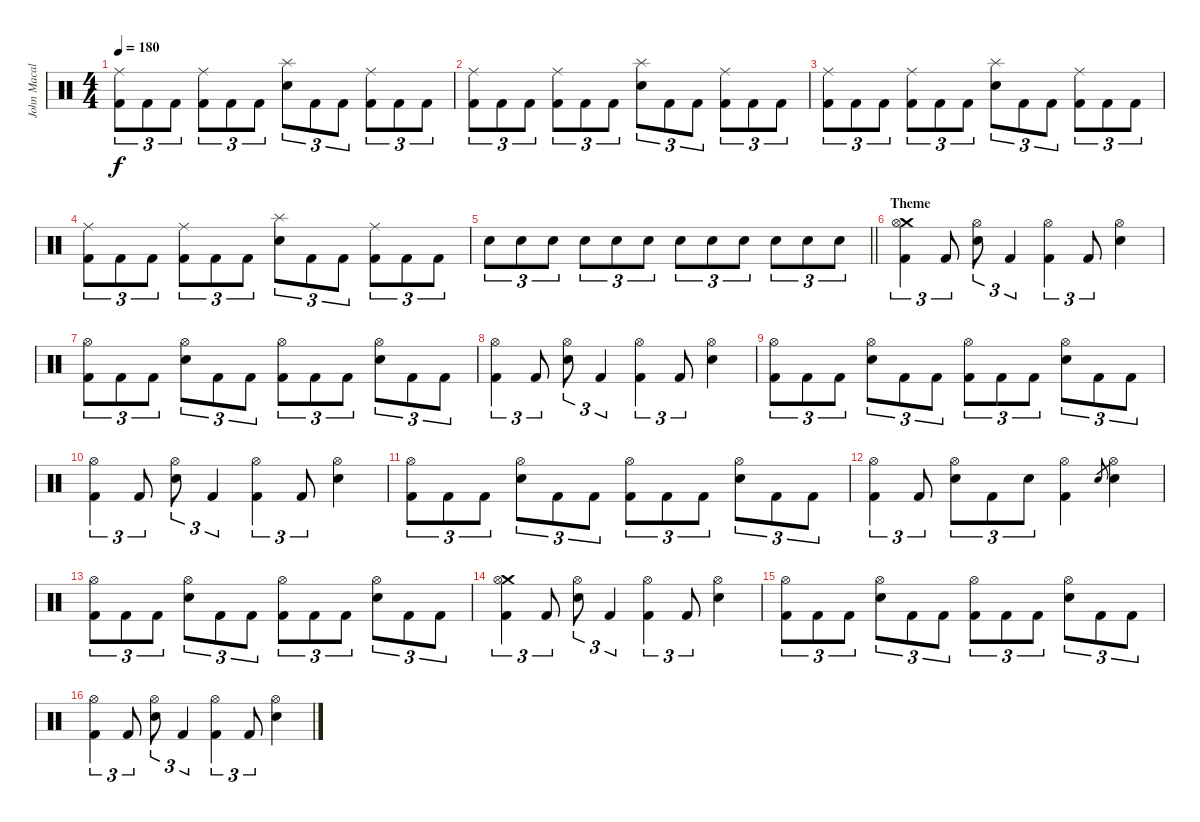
\track ("John Macaluso" "John Macal") {instrument percussion}
\staff {score}
\articulation defaults
\ts (4 4)
\tempo 180
\clef neutral
\ks c
("Ride (middle)" "Kick (hit) 2").8{tu (3 2) dy f} "Kick (hit) 2".8{tu (3 2)} "Kick (hit) 2".8{tu (3 2)} ("Ride (middle)" "Kick (hit) 2").8{tu (3 2)} "Kick (hit) 2".8{tu (3 2)} "Kick (hit) 2".8{tu (3 2)} ("Splash (hit)" "Snare (hit) 2").8{tu (3 2)} "Kick (hit) 2".8{tu (3 2)} "Kick (hit) 2".8{tu (3 2)} ("Ride (middle)" "Kick (hit) 2").8{tu (3 2)} "Kick (hit) 2".8{tu (3 2)} "Kick (hit) 2".8{tu (3 2)} |
("Ride (middle)" "Kick (hit) 2").8{tu (3 2)} "Kick (hit) 2".8{tu (3 2)} "Kick (hit) 2".8{tu (3 2)} ("Ride (middle)" "Kick (hit) 2").8{tu (3 2)} "Kick (hit) 2".8{tu (3 2)} "Kick (hit) 2".8{tu (3 2)} ("Splash (hit)" "Snare (hit) 2").8{tu (3 2)} "Kick (hit) 2".8{tu (3 2)} "Kick (hit) 2".8{tu (3 2)} ("Ride (middle)" "Kick (hit) 2").8{tu (3 2)} "Kick (hit) 2".8{tu (3 2)} "Kick (hit) 2".8{tu (3 2)} |
("Ride (middle)" "Kick (hit) 2").8{tu (3 2)} "Kick (hit) 2".8{tu (3 2)} "Kick (hit) 2".8{tu (3 2)} ("Ride (middle)" "Kick (hit) 2").8{tu (3 2)} "Kick (hit) 2".8{tu (3 2)} "Kick (hit) 2".8{tu (3 2)} ("Splash (hit)" "Snare (hit) 2").8{tu (3 2)} "Kick (hit) 2".8{tu (3 2)} "Kick (hit) 2".8{tu (3 2)} ("Ride (middle)" "Kick (hit) 2").8{tu (3 2)} "Kick (hit) 2".8{tu (3 2)} "Kick (hit) 2".8{tu (3 2)} |
("Ride (middle)" "Kick (hit) 2").8{tu (3 2)} "Kick (hit) 2".8{tu (3 2)} "Kick (hit) 2".8{tu (3 2)} ("Ride (middle)" "Kick (hit) 2").8{tu (3 2)} "Kick (hit) 2".8{tu (3 2)} "Kick (hit) 2".8{tu (3 2)} ("Splash (hit)" "Snare (hit) 2").8{tu (3 2)} "Kick (hit) 2".8{tu (3 2)} "Kick (hit) 2".8{tu (3 2)} ("Ride (middle)" "Kick (hit) 2").8{tu (3 2)} "Kick (hit) 2".8{tu (3 2)} "Kick (hit) 2".8{tu (3 2)} |
\barLineRight lightlight "Snare (hit) 2".8{tu (3 2)} "Snare (hit) 2".8{tu (3 2)} "Snare (hit) 2".8{tu (3 2)} "Snare (hit) 2".8{tu (3 2)} "Snare (hit) 2".8{tu (3 2)} "Snare (hit) 2".8{tu (3 2)} "Snare (hit) 2".8{tu (3 2)} "Snare (hit) 2".8{tu (3 2)} "Snare (hit) 2".8{tu (3 2)} "Snare (hit) 2".8{tu (3 2)} "Snare (hit) 2".8{tu (3 2)} "Snare (hit) 2".8{tu (3 2)}
|
\section ("" "Theme")
("Crash medium (hit)" "Hi-Hat (open)" "Kick (hit) 2").4{tu (3 2)} "Kick (hit) 2".8{tu (3 2)} ("Hi-Hat (open)" "Snare (hit) 2").8{tu (3 2)} "Kick (hit) 2".4{tu (3 2)} ("Hi-Hat (open)" "Kick (hit) 2").4{tu (3 2)} "Kick (hit) 2".8{tu (3 2)} ("Hi-Hat (open)" "Snare (hit) 2").4 |
("Hi-Hat (open)" "Kick (hit) 2").8{tu (3 2)} "Kick (hit) 2".8{tu (3 2)} "Kick (hit) 2".8{tu (3 2)} ("Hi-Hat (open)" "Snare (hit) 2").8{tu (3 2)} "Kick (hit) 2".8{tu (3 2)} "Kick (hit) 2".8{tu (3 2)} ("Hi-Hat (open)" "Kick (hit) 2").8{tu (3 2)} "Kick (hit) 2".8{tu (3 2)} "Kick (hit) 2".8{tu (3 2)} ("Hi-Hat (open)" "Snare (hit) 2").8{tu (3 2)} "Kick (hit) 2".8{tu (3 2)} "Kick (hit) 2".8{tu (3 2)} |
("Hi-Hat (open)" "Kick (hit) 2").4{tu (3 2)} "Kick (hit) 2".8{tu (3 2)} ("Hi-Hat (open)" "Snare (hit) 2").8{tu (3 2)} "Kick (hit) 2".4{tu (3 2)} ("Hi-Hat (open)" "Kick (hit) 2").4{tu (3 2)} "Kick (hit) 2".8{tu (3 2)} ("Hi-Hat (open)" "Snare (hit) 2").4 |
("Hi-Hat (open)" "Kick (hit) 2").8{tu (3 2)} "Kick (hit) 2".8{tu (3 2)} "Kick (hit) 2".8{tu (3 2)} ("Hi-Hat (open)" "Snare (hit) 2").8{tu (3 2)} "Kick (hit) 2".8{tu (3 2)} "Kick (hit) 2".8{tu (3 2)} ("Hi-Hat (open)" "Kick (hit) 2").8{tu (3 2)} "Kick (hit) 2".8{tu (3 2)} "Kick (hit) 2".8{tu (3 2)} ("Hi-Hat (open)" "Snare (hit) 2").8{tu (3 2)} "Kick (hit) 2".8{tu (3 2)} "Kick (hit) 2".8{tu (3 2)} |
("Hi-Hat (open)" "Kick (hit) 2").4{tu (3 2)} "Kick (hit) 2".8{tu (3 2)} ("Hi-Hat (open)" "Snare (hit) 2").8{tu (3 2)} "Kick (hit) 2".4{tu (3 2)} ("Hi-Hat (open)" "Kick (hit) 2").4{tu (3 2)} "Kick (hit) 2".8{tu (3 2)} ("Hi-Hat (open)" "Snare (hit) 2").4 |
("Hi-Hat (open)" "Kick (hit) 2").8{tu (3 2)} "Kick (hit) 2".8{tu (3 2)} "Kick (hit) 2".8{tu (3 2)} ("Hi-Hat (open)" "Snare (hit) 2").8{tu (3 2)} "Kick (hit) 2".8{tu (3 2)} "Kick (hit) 2".8{tu (3 2)} ("Hi-Hat (open)" "Kick (hit) 2").8{tu (3 2)} "Kick (hit) 2".8{tu (3 2)} "Kick (hit) 2".8{tu (3 2)} ("Hi-Hat (open)" "Snare (hit) 2").8{tu (3 2)} "Kick (hit) 2".8{tu (3 2)} "Kick (hit) 2".8{tu (3 2)} |
("Hi-Hat (open)" "Kick (hit) 2").4{tu (3 2)} "Kick (hit) 2".8{tu (3 2)} ("Hi-Hat (open)" "Snare (hit) 2").8{tu (3 2)} "Kick (hit) 2".8{tu (3 2)} "Snare (hit) 2".8{tu (3 2)} ("Hi-Hat (open)" "Kick (hit) 2").4 "Snare (hit) 2".8{gr} ("Hi-Hat (open)" "Snare (hit) 2").4 |
("Hi-Hat (open)" "Kick (hit) 2").8{tu (3 2)} "Kick (hit) 2".8{tu (3 2)} "Kick (hit) 2".8{tu (3 2)} ("Hi-Hat (open)" "Snare (hit) 2").8{tu (3 2)} "Kick (hit) 2".8{tu (3 2)} "Kick (hit) 2".8{tu (3 2)} ("Hi-Hat (open)" "Kick (hit) 2").8{tu (3 2)} "Kick (hit) 2".8{tu (3 2)} "Kick (hit) 2".8{tu (3 2)} ("Hi-Hat (open)" "Snare (hit) 2").8{tu (3 2)} "Kick (hit) 2".8{tu (3 2)} "Kick (hit) 2".8{tu (3 2)} |
("Crash medium (hit)" "Hi-Hat (open)" "Kick (hit) 2").4{tu (3 2)} "Kick (hit) 2".8{tu (3 2)} ("Hi-Hat (open)" "Snare (hit) 2").8{tu (3 2)} "Kick (hit) 2".4{tu (3 2)} ("Hi-Hat (open)" "Kick (hit) 2").4{tu (3 2)} "Kick (hit) 2".8{tu (3 2)} ("Hi-Hat (open)" "Snare (hit) 2").4 |
("Hi-Hat (open)" "Kick (hit) 2").8{tu (3 2)} "Kick (hit) 2".8{tu (3 2)} "Kick (hit) 2".8{tu (3 2)} ("Hi-Hat (open)" "Snare (hit) 2").8{tu (3 2)} "Kick (hit) 2".8{tu (3 2)} "Kick (hit) 2".8{tu (3 2)} ("Hi-Hat (open)" "Kick (hit) 2").8{tu (3 2)} "Kick (hit) 2".8{tu (3 2)} "Kick (hit) 2".8{tu (3 2)} ("Hi-Hat (open)" "Snare (hit) 2").8{tu (3 2)} "Kick (hit) 2".8{tu (3 2)} "Kick (hit) 2".8{tu (3 2)} |
("Hi-Hat (open)" "Kick (hit) 2").4{tu (3 2)} "Kick (hit) 2".8{tu (3 2)} ("Hi-Hat (open)" "Snare (hit) 2").8{tu (3 2)} "Kick (hit) 2".4{tu (3 2)} ("Hi-Hat (open)" "Kick (hit) 2").4{tu (3 2)} "Kick (hit) 2".8{tu (3 2)} ("Hi-Hat (open)" "Snare (hit) 2").4
